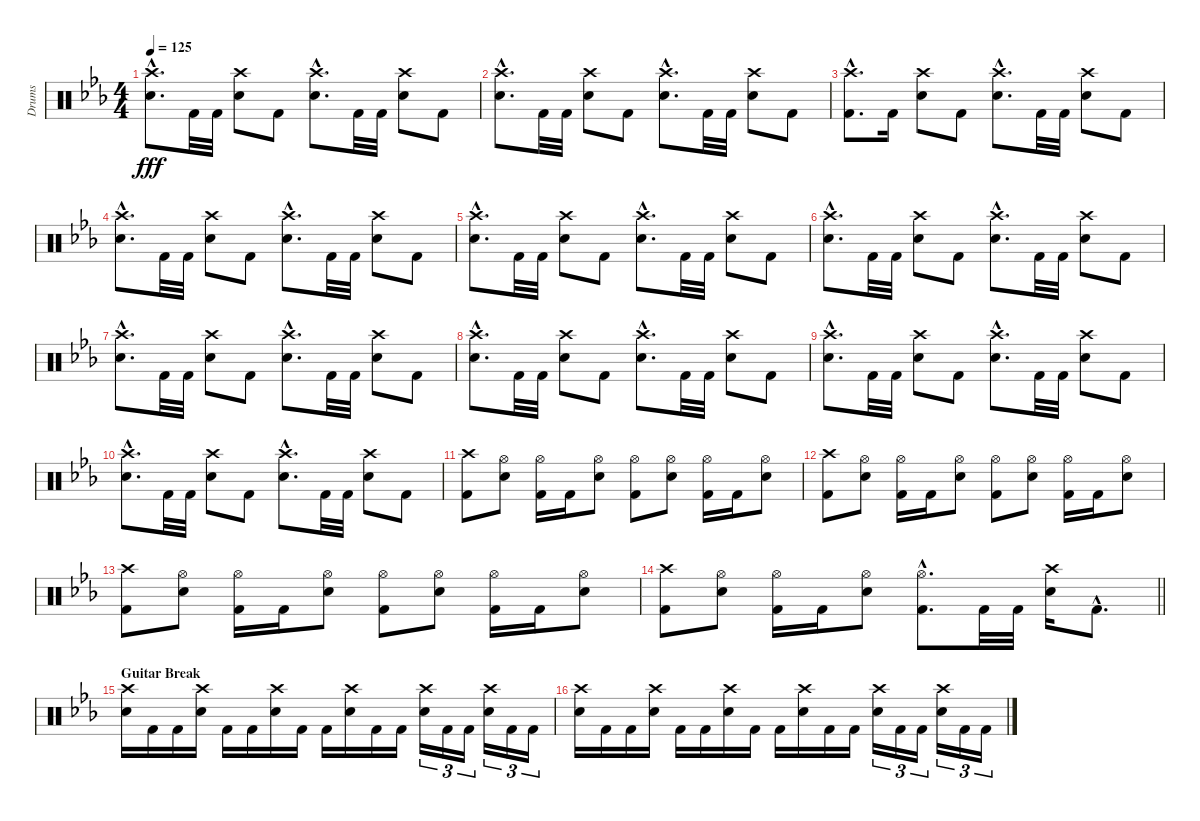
\track ("Drums" "Drums") {instrument percussion}
\staff {score}
\articulation defaults
\ts (4 4)
\tempo 125
\clef neutral
\ks cminor
("Crash high (hit)"{hac} "Snare (hit) 2"{hac}).8{d dy fff} "Kick (hit) 2".32 "Kick (hit) 2".32 ("Crash high (hit)" "Snare (hit) 2").8 "Kick (hit) 2".8 ("Crash high (hit)"{hac} "Snare (hit) 2"{hac}).8{d} "Kick (hit) 2".32 "Kick (hit) 2".32 ("Crash high (hit)" "Snare (hit) 2").8 "Kick (hit) 2".8 |
("Crash high (hit)"{hac} "Snare (hit) 2"{hac}).8{d} "Kick (hit) 2".32 "Kick (hit) 2".32 ("Crash high (hit)" "Snare (hit) 2").8 "Kick (hit) 2".8 ("Crash high (hit)"{hac} "Snare (hit) 2"{hac}).8{d} "Kick (hit) 2".32 "Kick (hit) 2".32 ("Crash high (hit)" "Snare (hit) 2").8 "Kick (hit) 2".8 |
("Crash high (hit)"{hac} "Kick (hit) 2"{hac}).8{d} "Kick (hit) 2".16 ("Crash high (hit)" "Snare (hit) 2").8 "Kick (hit) 2".8 ("Crash high (hit)"{hac} "Snare (hit) 2"{hac}).8{d} "Kick (hit) 2".32 "Kick (hit) 2".32 ("Crash high (hit)" "Snare (hit) 2").8 "Kick (hit) 2".8 |
("Crash high (hit)"{hac} "Snare (hit) 2"{hac}).8{d} "Kick (hit) 2".32 "Kick (hit) 2".32 ("Crash high (hit)" "Snare (hit) 2").8 "Kick (hit) 2".8 ("Crash high (hit)"{hac} "Snare (hit) 2"{hac}).8{d} "Kick (hit) 2".32 "Kick (hit) 2".32 ("Crash high (hit)" "Snare (hit) 2").8 "Kick (hit) 2".8 |
("Crash high (hit)"{hac} "Snare (hit) 2"{hac}).8{d} "Kick (hit) 2".32 "Kick (hit) 2".32 ("Crash high (hit)" "Snare (hit) 2").8 "Kick (hit) 2".8 ("Crash high (hit)"{hac} "Snare (hit) 2"{hac}).8{d} "Kick (hit) 2".32 "Kick (hit) 2".32 ("Crash high (hit)" "Snare (hit) 2").8 "Kick (hit) 2".8 |
("Crash high (hit)"{hac} "Snare (hit) 2"{hac}).8{d} "Kick (hit) 2".32 "Kick (hit) 2".32 ("Crash high (hit)" "Snare (hit) 2").8 "Kick (hit) 2".8 ("Crash high (hit)"{hac} "Snare (hit) 2"{hac}).8{d} "Kick (hit) 2".32 "Kick (hit) 2".32 ("Crash high (hit)" "Snare (hit) 2").8 "Kick (hit) 2".8 |
("Crash high (hit)"{hac} "Snare (hit) 2"{hac}).8{d} "Kick (hit) 2".32 "Kick (hit) 2".32 ("Crash high (hit)" "Snare (hit) 2").8 "Kick (hit) 2".8 ("Crash high (hit)"{hac} "Snare (hit) 2"{hac}).8{d} "Kick (hit) 2".32 "Kick (hit) 2".32 ("Crash high (hit)" "Snare (hit) 2").8 "Kick (hit) 2".8 |
("Crash high (hit)"{hac} "Snare (hit) 2"{hac}).8{d} "Kick (hit) 2".32 "Kick (hit) 2".32 ("Crash high (hit)" "Snare (hit) 2").8 "Kick (hit) 2".8 ("Crash high (hit)"{hac} "Snare (hit) 2"{hac}).8{d} "Kick (hit) 2".32 "Kick (hit) 2".32 ("Crash high (hit)" "Snare (hit) 2").8 "Kick (hit) 2".8 |
("Crash high (hit)"{hac} "Snare (hit) 2"{hac}).8{d} "Kick (hit) 2".32 "Kick (hit) 2".32 ("Crash high (hit)" "Snare (hit) 2").8 "Kick (hit) 2".8 ("Crash high (hit)"{hac} "Snare (hit) 2"{hac}).8{d} "Kick (hit) 2".32 "Kick (hit) 2".32 ("Crash high (hit)" "Snare (hit) 2").8 "Kick (hit) 2".8 |
("Crash high (hit)"{hac} "Snare (hit) 2"{hac}).8{d} "Kick (hit) 2".32 "Kick (hit) 2".32 ("Crash high (hit)" "Snare (hit) 2").8 "Kick (hit) 2".8 ("Crash high (hit)"{hac} "Snare (hit) 2"{hac}).8{d} "Kick (hit) 2".32 "Kick (hit) 2".32 ("Crash high (hit)" "Snare (hit) 2").8 "Kick (hit) 2".8 |
("Crash high (hit)" "Kick (hit) 2").8 ("Hi-Hat (open)" "Snare (hit) 2").8 ("Hi-Hat (open)" "Kick (hit) 2").16 "Kick (hit) 2".16 ("Hi-Hat (open)" "Snare (hit) 2").8 ("Hi-Hat (open)" "Kick (hit) 2").8 ("Hi-Hat (open)" "Snare (hit) 2").8 ("Hi-Hat (open)" "Kick (hit) 2").16 "Kick (hit) 2".16 ("Hi-Hat (open)" "Snare (hit) 2").8 |
("Crash high (hit)" "Kick (hit) 2").8 ("Hi-Hat (open)" "Snare (hit) 2").8 ("Hi-Hat (open)" "Kick (hit) 2").16 "Kick (hit) 2".16 ("Hi-Hat (open)" "Snare (hit) 2").8 ("Hi-Hat (open)" "Kick (hit) 2").8 ("Hi-Hat (open)" "Snare (hit) 2").8 ("Hi-Hat (open)" "Kick (hit) 2").16 "Kick (hit) 2".16 ("Hi-Hat (open)" "Snare (hit) 2").8 |
("Crash high (hit)" "Kick (hit) 2").8 ("Hi-Hat (open)" "Snare (hit) 2").8 ("Hi-Hat (open)" "Kick (hit) 2").16 "Kick (hit) 2".16 ("Hi-Hat (open)" "Snare (hit) 2").8 ("Hi-Hat (open)" "Kick (hit) 2").8 ("Hi-Hat (open)" "Snare (hit) 2").8 ("Hi-Hat (open)" "Kick (hit) 2").16 "Kick (hit) 2".16 ("Hi-Hat (open)" "Snare (hit) 2").8 |
\barLineRight lightlight
("Crash high (hit)" "Kick (hit) 2").8 ("Hi-Hat (open)" "Snare (hit) 2").8 ("Hi-Hat (open)" "Kick (hit) 2").16 "Kick (hit) 2".16 ("Hi-Hat (open)" "Snare (hit) 2").8 ("Hi-Hat (open)"{hac} "Kick (hit) 2"{hac}).8{d} "Kick (hit) 2".32 "Kick (hit) 2".32 ("Crash high (hit)" "Snare (hit) 2").16 "Kick (hit) 2"{hac}.8{d} |
\section ("" "Guitar Break")
("Crash high (hit)" "Snare (hit) 2").16 "Kick (hit) 2".16 "Kick (hit) 2".16 ("Crash high (hit)" "Snare (hit) 2").16 "Kick (hit) 2".16 "Kick (hit) 2".16 ("Crash high (hit)" "Snare (hit) 2").16 "Kick (hit) 2".16 "Kick (hit) 2".16 ("Crash high (hit)" "Snare (hit) 2").16 "Kick (hit) 2".16 "Kick (hit) 2".16 ("Crash high (hit)" "Snare (hit) 2").16{tu (3 2)} "Kick (hit) 2".16{tu (3 2)} "Kick (hit) 2".16{tu (3 2)} ("Crash high (hit)" "Snare (hit) 2").16{tu (3 2)} "Kick (hit) 2".16{tu (3 2)} "Kick (hit) 2".16{tu (3 2)} |
("Crash high (hit)" "Snare (hit) 2").16 "Kick (hit) 2".16 "Kick (hit) 2".16 ("Crash high (hit)" "Snare (hit) 2").16 "Kick (hit) 2".16 "Kick (hit) 2".16 ("Crash high (hit)" "Snare (hit) 2").16 "Kick (hit) 2".16 "Kick (hit) 2".16 ("Crash high (hit)" "Snare (hit) 2").16 "Kick (hit) 2".16 "Kick (hit) 2".16 ("Crash high (hit)" "Snare (hit) 2").16{tu (3 2)} "Kick (hit) 2".16{tu (3 2)} "Kick (hit) 2".16{tu (3 2)} ("Crash high (hit)" "Snare (hit) 2").16{tu (3 2)} "Kick (hit) 2".16{tu (3 2)} "Kick (hit) 2".16{tu (3 2)}
